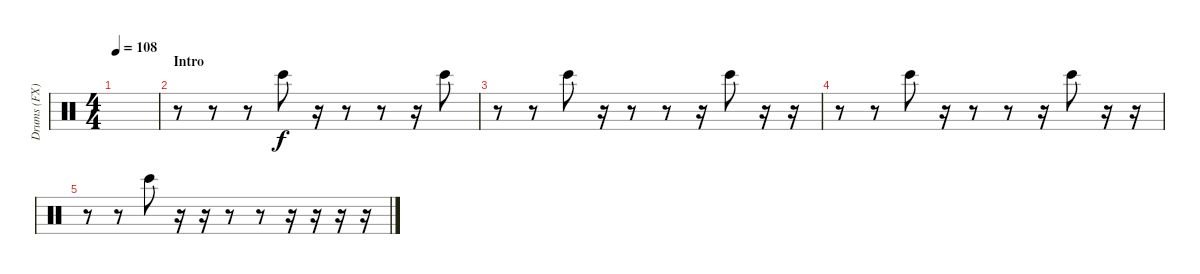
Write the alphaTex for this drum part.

\track ("Drums (FX)" "Drums (FX)") {instrument percussion}
\staff {score}
\articulation defaults
\ts (4 4)
\tempo 108
\clef neutral
\ks c
|
\section ("" "Intro")
r.8 r.8 r.8 "Bongo High (hit)".8 r.16 r.8 r.8 r.16 "Bongo High (hit)".8 |
r.8 r.8 "Bongo High (hit)".8 r.16 r.8 r.8 r.16 "Bongo High (hit)".8 r.16 r.16 |
r.8 r.8 "Bongo High (hit)".8 r.16 r.8 r.8 r.16 "Bongo High (hit)".8 r.16 r.16 |
r.8 r.8 "Bongo High (hit)".8 r.16 r.16 r.8 r.8 r.16 r.16 r.16 r.16
